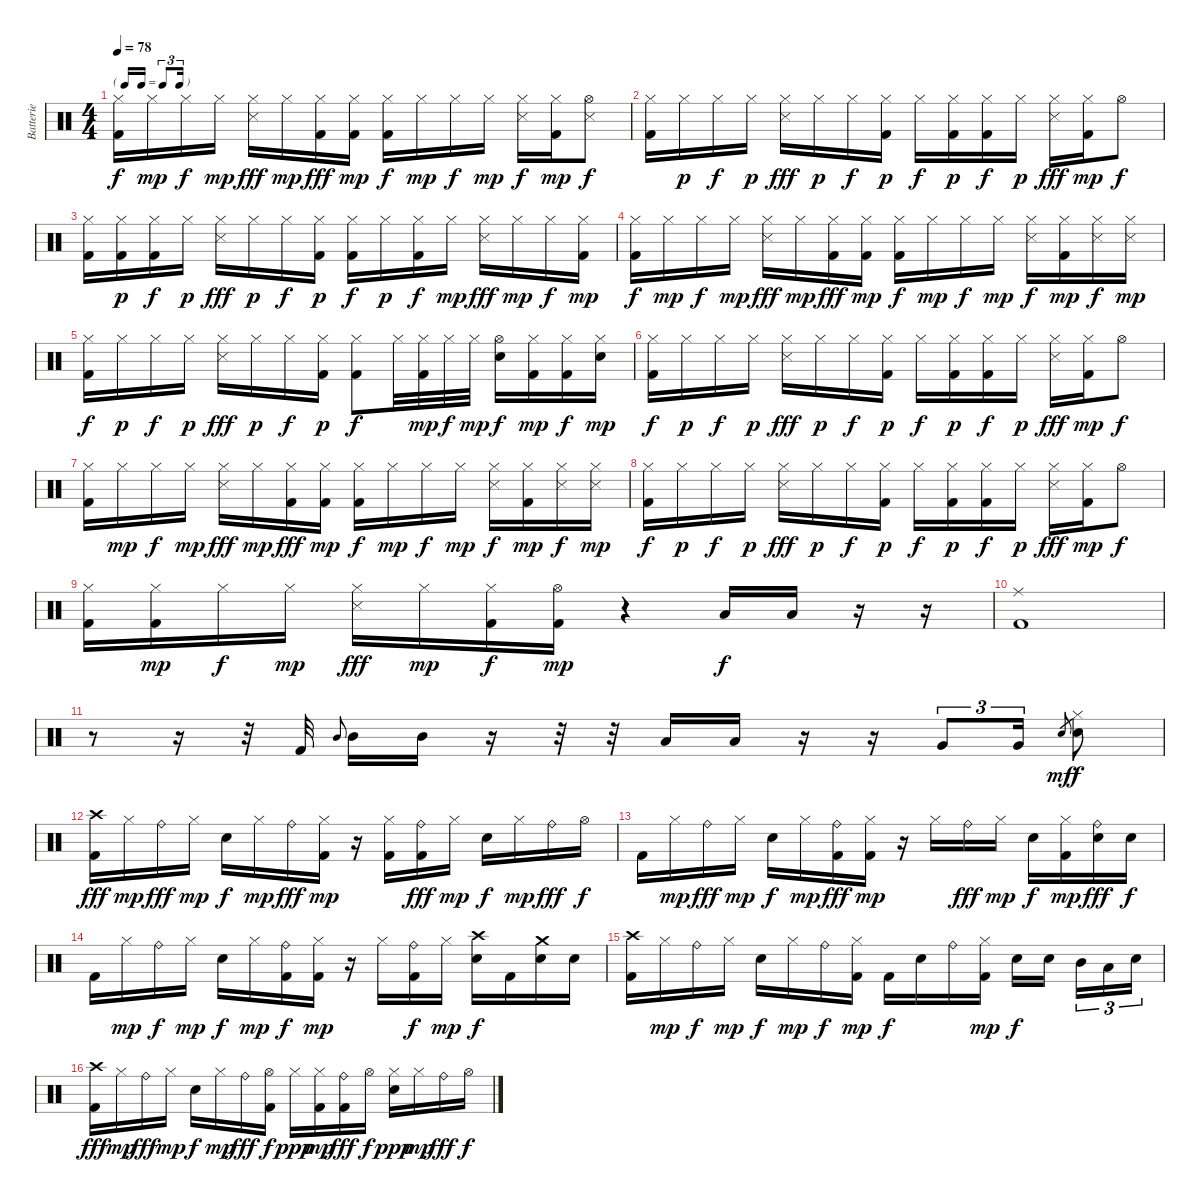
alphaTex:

\track ("Batterie" "Batterie") {instrument percussion}
\staff {score}
\articulation defaults
\ts (4 4)
\tf triplet16th
\tempo 78
\clef neutral
\ks c
("Hi-Hat (closed)" "Kick (hit) 2").16{dy f} "Hi-Hat (closed)".16{dy mp} "Hi-Hat (closed)".16{dy f} "Hi-Hat (closed)".16{dy mp} ("Hi-Hat (closed)" "Snare (side stick) 3").16{dy fff} "Hi-Hat (closed)".16{dy mp} ("Hi-Hat (closed)" "Kick (hit) 2").16{dy fff} ("Hi-Hat (closed)" "Kick (hit) 2").16{dy mp} ("Hi-Hat (closed)" "Kick (hit) 2").16{dy f} "Hi-Hat (closed)".16{dy mp} "Hi-Hat (closed)".16{dy f} "Hi-Hat (closed)".16{dy mp} ("Hi-Hat (closed)" "Snare (side stick) 3").16{dy f} ("Hi-Hat (closed)" "Kick (hit) 2").16{dy mp} ("Hi-Hat (open)" "Snare (side stick) 3").8{dy f} |
("Hi-Hat (closed)" "Kick (hit) 2").16 "Hi-Hat (closed)".16{dy p} "Hi-Hat (closed)".16{dy f} "Hi-Hat (closed)".16{dy p} ("Hi-Hat (closed)" "Snare (side stick) 3").16{dy fff} "Hi-Hat (closed)".16{dy p} "Hi-Hat (closed)".16{dy f} ("Hi-Hat (closed)" "Kick (hit) 2").16{dy p} "Hi-Hat (closed)".16{dy f} ("Hi-Hat (closed)" "Kick (hit) 2").16{dy p} ("Hi-Hat (closed)" "Kick (hit) 2").16{dy f} "Hi-Hat (closed)".16{dy p} ("Hi-Hat (closed)" "Snare (side stick) 3").16{dy fff} ("Hi-Hat (closed)" "Kick (hit) 2").16{dy mp} "Hi-Hat (open)".8{dy f} |
("Hi-Hat (closed)" "Kick (hit) 2").16 ("Hi-Hat (closed)" "Kick (hit) 2").16{dy p} ("Hi-Hat (closed)" "Kick (hit) 2").16{dy f} "Hi-Hat (closed)".16{dy p} ("Hi-Hat (closed)" "Snare (side stick) 3").16{dy fff} "Hi-Hat (closed)".16{dy p} "Hi-Hat (closed)".16{dy f} ("Hi-Hat (closed)" "Kick (hit) 2").16{dy p} ("Hi-Hat (closed)" "Kick (hit) 2").16{dy f} "Hi-Hat (closed)".16{dy p} ("Hi-Hat (closed)" "Kick (hit) 2").16{dy f} "Hi-Hat (closed)".16{dy mp} ("Hi-Hat (closed)" "Snare (side stick) 3").16{dy fff} "Hi-Hat (closed)".16{dy mp} "Hi-Hat (closed)".16{dy f} ("Hi-Hat (closed)" "Kick (hit) 2").16{dy mp} |
("Hi-Hat (closed)" "Kick (hit) 2").16{dy f} "Hi-Hat (closed)".16{dy mp} "Hi-Hat (closed)".16{dy f} "Hi-Hat (closed)".16{dy mp} ("Hi-Hat (closed)" "Snare (side stick) 3").16{dy fff} "Hi-Hat (closed)".16{dy mp} ("Hi-Hat (closed)" "Kick (hit) 2").16{dy fff} ("Hi-Hat (closed)" "Kick (hit) 2").16{dy mp} ("Hi-Hat (closed)" "Kick (hit) 2").16{dy f} "Hi-Hat (closed)".16{dy mp} "Hi-Hat (closed)".16{dy f} "Hi-Hat (closed)".16{dy mp} ("Hi-Hat (closed)" "Snare (side stick) 3").16{dy f} ("Hi-Hat (closed)" "Kick (hit) 2").16{dy mp} ("Hi-Hat (closed)" "Snare (side stick) 3").16{dy f} ("Hi-Hat (closed)" "Snare (side stick) 3").16{dy mp} |
("Hi-Hat (closed)" "Kick (hit) 2").16{dy f} "Hi-Hat (closed)".16{dy p} "Hi-Hat (closed)".16{dy f} "Hi-Hat (closed)".16{dy p} ("Hi-Hat (closed)" "Snare (side stick) 3").16{dy fff} "Hi-Hat (closed)".16{dy p} "Hi-Hat (closed)".16{dy f} ("Hi-Hat (closed)" "Kick (hit) 2").16{dy p} ("Hi-Hat (closed)" "Kick (hit) 2").8{dy f} "Hi-Hat (closed)".32 ("Hi-Hat (closed)" "Kick (hit) 2").32{dy mp} "Hi-Hat (closed)".32{dy f} "Hi-Hat (closed)".32{dy mp} ("Hi-Hat (open)" "Electric Snare (hit)").16{dy f} ("Hi-Hat (closed)" "Kick (hit) 2").16{dy mp} ("Hi-Hat (closed)" "Kick (hit) 2").16{dy f} ("Hi-Hat (closed)" "Electric Snare (hit)").16{dy mp} |
("Hi-Hat (closed)" "Kick (hit) 2").16{dy f} "Hi-Hat (closed)".16{dy p} "Hi-Hat (closed)".16{dy f} "Hi-Hat (closed)".16{dy p} ("Hi-Hat (closed)" "Snare (side stick) 3").16{dy fff} "Hi-Hat (closed)".16{dy p} "Hi-Hat (closed)".16{dy f} ("Hi-Hat (closed)" "Kick (hit) 2").16{dy p} "Hi-Hat (closed)".16{dy f} ("Hi-Hat (closed)" "Kick (hit) 2").16{dy p} ("Hi-Hat (closed)" "Kick (hit) 2").16{dy f} "Hi-Hat (closed)".16{dy p} ("Hi-Hat (closed)" "Snare (side stick) 3").16{dy fff} ("Hi-Hat (closed)" "Kick (hit) 2").16{dy mp} "Hi-Hat (open)".8{dy f} |
("Hi-Hat (closed)" "Kick (hit) 2").16 "Hi-Hat (closed)".16{dy mp} "Hi-Hat (closed)".16{dy f} "Hi-Hat (closed)".16{dy mp} ("Hi-Hat (closed)" "Snare (side stick) 3").16{dy fff} "Hi-Hat (closed)".16{dy mp} ("Hi-Hat (closed)" "Kick (hit) 2").16{dy fff} ("Hi-Hat (closed)" "Kick (hit) 2").16{dy mp} ("Hi-Hat (closed)" "Kick (hit) 2").16{dy f} "Hi-Hat (closed)".16{dy mp} "Hi-Hat (closed)".16{dy f} "Hi-Hat (closed)".16{dy mp} ("Hi-Hat (closed)" "Snare (side stick) 3").16{dy f} ("Hi-Hat (closed)" "Kick (hit) 2").16{dy mp} ("Hi-Hat (closed)" "Snare (side stick) 3").16{dy f} ("Hi-Hat (closed)" "Snare (side stick) 3").16{dy mp} |
("Hi-Hat (closed)" "Kick (hit) 2").16{dy f} "Hi-Hat (closed)".16{dy p} "Hi-Hat (closed)".16{dy f} "Hi-Hat (closed)".16{dy p} ("Hi-Hat (closed)" "Snare (side stick) 3").16{dy fff} "Hi-Hat (closed)".16{dy p} "Hi-Hat (closed)".16{dy f} ("Hi-Hat (closed)" "Kick (hit) 2").16{dy p} "Hi-Hat (closed)".16{dy f} ("Hi-Hat (closed)" "Kick (hit) 2").16{dy p} ("Hi-Hat (closed)" "Kick (hit) 2").16{dy f} "Hi-Hat (closed)".16{dy p} ("Hi-Hat (closed)" "Snare (side stick) 3").16{dy fff} ("Hi-Hat (closed)" "Kick (hit) 2").16{dy mp} "Hi-Hat (open)".8{dy f} |
("Hi-Hat (closed)" "Kick (hit) 2").16 ("Hi-Hat (closed)" "Kick (hit) 2").16{dy mp} "Hi-Hat (closed)".16{dy f} "Hi-Hat (closed)".16{dy mp} ("Hi-Hat (closed)" "Snare (side stick) 3").16{dy fff} "Hi-Hat (closed)".16{dy mp} ("Hi-Hat (closed)" "Kick (hit) 2").16{dy f} ("Hi-Hat (open)" "Kick (hit) 2").16{dy mp} r.4 "Low Tom (hit)".16{dy f} "Low Tom (hit)".16 r.16 r.16 |
("Ride (middle)" "Kick (hit) 2").1 |
r.8 r.16 r.32 "Kick (hit) 2".32 "Mid Tom (hit)".8{gr onbeat} "Mid Tom (hit)".16 "Mid Tom (hit)".16 r.16 r.32 r.32 "Low Tom (hit)".16 "Low Tom (hit)".16 r.16 r.16 "Very Low Tom (hit)".8{tu (3 2)} "Very Low Tom (hit)".16{tu (3 2)} "Electric Snare (hit)".8{gr dy mf} ("Hi-Hat (closed)" "Electric Snare (hit)").8{dy f} |
("Crash high (hit)" "Kick (hit) 2").16{dy fff} "Hi-Hat (closed)".16{dy mp} "Ride (bell)".16{dy fff} "Hi-Hat (closed)".16{dy mp} "Electric Snare (hit)".16{dy f} "Hi-Hat (closed)".16{dy mp} "Ride (bell)".16{dy fff} ("Hi-Hat (closed)" "Kick (hit) 2").16{dy mp} r.16 ("Hi-Hat (closed)" "Kick (hit) 2").16 ("Ride (bell)" "Kick (hit) 2").16{dy fff} "Hi-Hat (closed)".16{dy mp} "Electric Snare (hit)".16{dy f} "Hi-Hat (closed)".16{dy mp} "Ride (bell)".16{dy fff} "Hi-Hat (open)".16{dy f} |
"Kick (hit) 2".16 "Hi-Hat (closed)".16{dy mp} "Ride (bell)".16{dy fff} "Hi-Hat (closed)".16{dy mp} "Electric Snare (hit)".16{dy f} "Hi-Hat (closed)".16{dy mp} ("Ride (bell)" "Kick (hit) 2").16{dy fff} ("Hi-Hat (closed)" "Kick (hit) 2").16{dy mp} r.16 "Hi-Hat (closed)".16 "Ride (bell)".16{dy fff} "Hi-Hat (closed)".16{dy mp} "Electric Snare (hit)".16{dy f} ("Hi-Hat (closed)" "Kick (hit) 2").16{dy mp} ("Ride (bell)" "Electric Snare (hit)").16{dy fff} "Electric Snare (hit)".16{dy f} |
"Kick (hit) 2".16 "Hi-Hat (closed)".16{dy mp} "Ride (bell)".16{dy f} "Hi-Hat (closed)".16{dy mp} "Electric Snare (hit)".16{dy f} "Hi-Hat (closed)".16{dy mp} ("Ride (bell)" "Kick (hit) 2").16{dy f} ("Hi-Hat (closed)" "Kick (hit) 2").16{dy mp} r.16 "Hi-Hat (closed)".16 ("Ride (bell)" "Kick (hit) 2").16{dy f} "Hi-Hat (closed)".16{dy mp} ("Crash high (hit)" "Electric Snare (hit)").16{dy f} "Kick (hit) 2".16 ("Crash medium (hit)" "Electric Snare (hit)").16 "Electric Snare (hit)".16 |
("Crash high (hit)" "Kick (hit) 2").16 "Hi-Hat (closed)".16{dy mp} "Ride (bell)".16{dy f} "Hi-Hat (closed)".16{dy mp} "Electric Snare (hit)".16{dy f} "Hi-Hat (closed)".16{dy mp} "Ride (bell)".16{dy f} ("Hi-Hat (closed)" "Kick (hit) 2").16{dy mp} "Kick (hit) 2".16{dy f} "Electric Snare (hit)".16 "Ride (bell)".16 ("Hi-Hat (closed)" "Kick (hit) 2").16{dy mp} "Electric Snare (hit)".16{dy f} "Electric Snare (hit)".16{beam splitsecondary} "Mid Tom (hit)".16{tu (3 2)} "Low Tom (hit)".16{tu (3 2)} "Electric Snare (hit)".16{tu (3 2)} |
("Crash high (hit)" "Kick (hit) 2").16{dy fff} "Hi-Hat (closed)".16{dy mp} "Ride (bell)".16{dy fff} "Hi-Hat (closed)".16{dy mp} "Electric Snare (hit)".16{dy f} "Hi-Hat (closed)".16{dy mp} "Ride (bell)".16{dy fff} ("Hi-Hat (open)" "Kick (hit) 2").16{dy f} "Hi-Hat (closed)".16{dy ppp} ("Hi-Hat (closed)" "Kick (hit) 2").16{dy mp} ("Ride (bell)" "Kick (hit) 2").16{dy fff} "Hi-Hat (open)".16{dy f} ("Hi-Hat (closed)" "Electric Snare (hit)").16{dy ppp} "Hi-Hat (closed)".16{dy mp} "Ride (bell)".16{dy fff} "Hi-Hat (open)".16{dy f}
